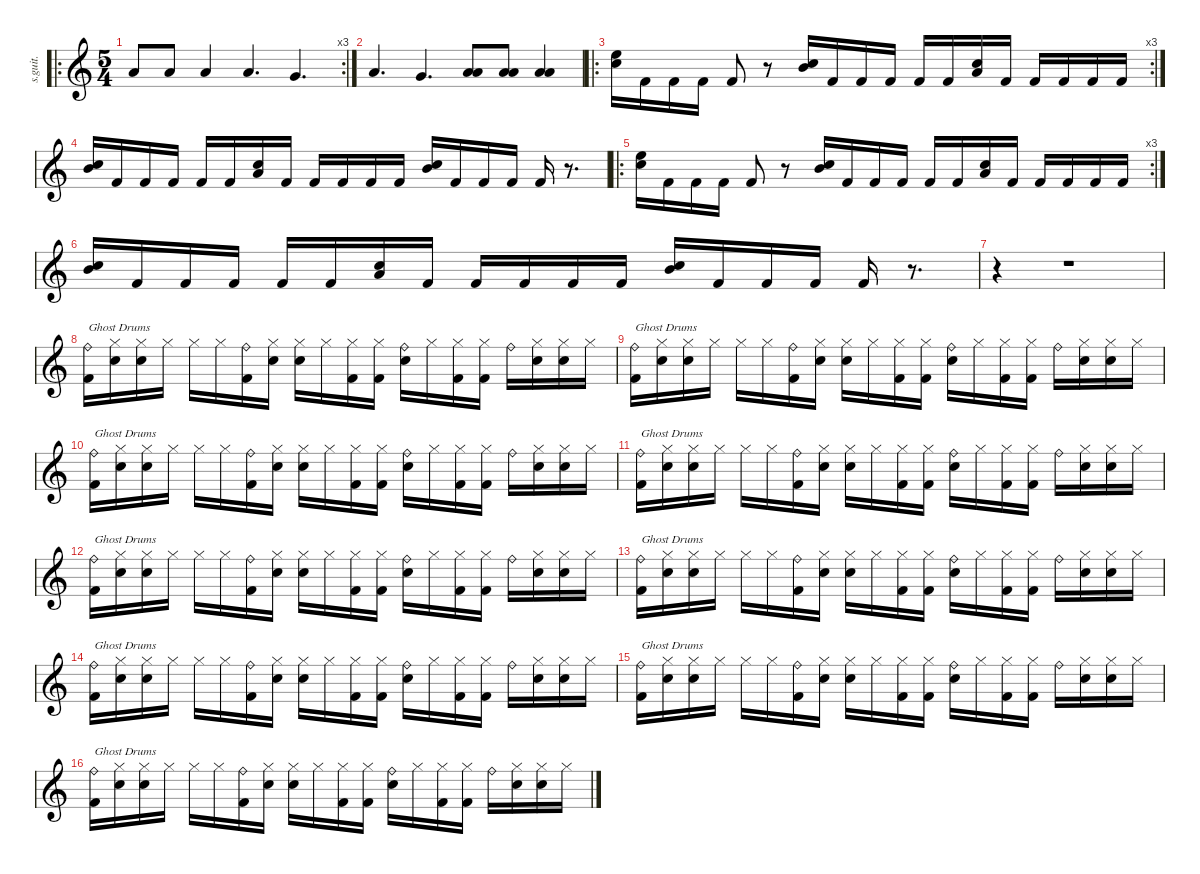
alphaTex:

\defaultSystemsLayout 4
\hideDynamics
\bracketExtendMode nobrackets
\track ("Pete Riley" "s.guit.") {instrument percussion}
\staff {score}
\articulation defaults
\ro
\rc 3
\ts (5 4)
\tempo (152 hide)
\clef g2
\ks c "Low Floor Tom (hit)".8{dy f} "Low Floor Tom (hit)".8 "Low Floor Tom (hit)".4 "Low Tom (hit)".4{d} "Very Low Tom (hit)".4{d}
|
"Low Tom (hit)".4{d} "Very Low Tom (hit)".4{d} ("Low Tom (hit)" "Low Floor Tom (hit)").8 ("Low Tom (hit)" "Low Floor Tom (hit)").8 ("Low Tom (hit)" "Low Floor Tom (hit)").4 |
\ro
\rc 3
("High Floor Tom (hit)" "Snare (hit) 2").16 "Kick (hit) 2".16 "Kick (hit) 2".16 "Kick (hit) 2".16 "Kick (hit) 2".8 r.8 ("Mid Tom (hit)" "Snare (hit) 2").16 "Kick (hit) 2".16 "Kick (hit) 2".16 "Kick (hit) 2".16 "Kick (hit) 2".16 "Kick (hit) 2".16 ("Low Tom (hit)" "Snare (hit) 2").16 "Kick (hit) 2".16 "Kick (hit) 2".16 "Kick (hit) 2".16 "Kick (hit) 2".16 "Kick (hit) 2".16 |
("Mid Tom (hit)" "Snare (hit) 2").16 "Kick (hit) 2".16 "Kick (hit) 2".16 "Kick (hit) 2".16 "Kick (hit) 2".16 "Kick (hit) 2".16 ("Low Tom (hit)" "Snare (hit) 2").16 "Kick (hit) 2".16 "Kick (hit) 2".16 "Kick (hit) 2".16 "Kick (hit) 2".16 "Kick (hit) 2".16 ("Mid Tom (hit)" "Snare (hit) 2").16 "Kick (hit) 2".16 "Kick (hit) 2".16 "Kick (hit) 2".16 "Kick (hit) 2".16 r.8{d} |
\ro
\rc 3
("High Floor Tom (hit)" "Snare (hit) 2").16 "Kick (hit) 2".16 "Kick (hit) 2".16 "Kick (hit) 2".16 "Kick (hit) 2".8 r.8 ("Mid Tom (hit)" "Snare (hit) 2").16 "Kick (hit) 2".16 "Kick (hit) 2".16 "Kick (hit) 2".16 "Kick (hit) 2".16 "Kick (hit) 2".16 ("Low Tom (hit)" "Snare (hit) 2").16 "Kick (hit) 2".16 "Kick (hit) 2".16 "Kick (hit) 2".16 "Kick (hit) 2".16 "Kick (hit) 2".16 |
("Mid Tom (hit)" "Snare (hit) 2").16 "Kick (hit) 2".16 "Kick (hit) 2".16 "Kick (hit) 2".16 "Kick (hit) 2".16 "Kick (hit) 2".16 ("Low Tom (hit)" "Snare (hit) 2").16 "Kick (hit) 2".16 "Kick (hit) 2".16 "Kick (hit) 2".16 "Kick (hit) 2".16 "Kick (hit) 2".16 ("Mid Tom (hit)" "Snare (hit) 2").16 "Kick (hit) 2".16 "Kick (hit) 2".16 "Kick (hit) 2".16 "Kick (hit) 2".16 r.8{d} |
r.4 r.1 |
("Ride (bell)" "Kick (hit) 2").16{txt "Ghost Drums" dy ff} ("Hi-Hat (closed)" "Snare (hit) 2").16{dy p} ("Hi-Hat (closed)" "Snare (hit) 2").16 "Hi-Hat (closed)".16 "Hi-Hat (closed)".16 "Hi-Hat (closed)".16 ("Ride (bell)" "Kick (hit) 2").16{dy fff} ("Hi-Hat (closed)" "Snare (hit) 2").16{dy p} ("Hi-Hat (closed)" "Snare (hit) 2").16 "Hi-Hat (closed)".16 ("Hi-Hat (closed)" "Kick (hit) 2").16 ("Hi-Hat (closed)" "Kick (hit) 2").16 ("Ride (bell)" "Snare (hit) 2").16{dy ff} "Hi-Hat (closed)".16{dy p} ("Hi-Hat (closed)" "Kick (hit) 2").16 ("Hi-Hat (closed)" "Kick (hit) 2").16 "Ride (bell)".16{dy f} ("Hi-Hat (closed)" "Snare (hit) 2").16{dy pp} ("Hi-Hat (closed)" "Snare (hit) 2").16 "Hi-Hat (closed)".16 |
("Ride (bell)" "Kick (hit) 2").16{txt "Ghost Drums" dy ff} ("Hi-Hat (closed)" "Snare (hit) 2").16{dy p} ("Hi-Hat (closed)" "Snare (hit) 2").16 "Hi-Hat (closed)".16 "Hi-Hat (closed)".16 "Hi-Hat (closed)".16 ("Ride (bell)" "Kick (hit) 2").16{dy fff} ("Hi-Hat (closed)" "Snare (hit) 2").16{dy p} ("Hi-Hat (closed)" "Snare (hit) 2").16 "Hi-Hat (closed)".16 ("Hi-Hat (closed)" "Kick (hit) 2").16 ("Hi-Hat (closed)" "Kick (hit) 2").16 ("Ride (bell)" "Snare (hit) 2").16{dy ff} "Hi-Hat (closed)".16{dy p} ("Hi-Hat (closed)" "Kick (hit) 2").16 ("Hi-Hat (closed)" "Kick (hit) 2").16 "Ride (bell)".16{dy fff} ("Hi-Hat (closed)" "Snare (hit) 2").16{dy pp} ("Hi-Hat (closed)" "Snare (hit) 2").16 "Hi-Hat (closed)".16 |
("Ride (bell)" "Kick (hit) 2").16{txt "Ghost Drums" dy ff} ("Hi-Hat (closed)" "Snare (hit) 2").16{dy p} ("Hi-Hat (closed)" "Snare (hit) 2").16 "Hi-Hat (closed)".16 "Hi-Hat (closed)".16 "Hi-Hat (closed)".16 ("Ride (bell)" "Kick (hit) 2").16{dy fff} ("Hi-Hat (closed)" "Snare (hit) 2").16{dy p} ("Hi-Hat (closed)" "Snare (hit) 2").16 "Hi-Hat (closed)".16 ("Hi-Hat (closed)" "Kick (hit) 2").16 ("Hi-Hat (closed)" "Kick (hit) 2").16 ("Ride (bell)" "Snare (hit) 2").16{dy ff} "Hi-Hat (closed)".16{dy p} ("Hi-Hat (closed)" "Kick (hit) 2").16 ("Hi-Hat (closed)" "Kick (hit) 2").16 "Ride (bell)".16{dy f} ("Hi-Hat (closed)" "Snare (hit) 2").16{dy pp} ("Hi-Hat (closed)" "Snare (hit) 2").16 "Hi-Hat (closed)".16 |
("Ride (bell)" "Kick (hit) 2").16{txt "Ghost Drums" dy ff} ("Hi-Hat (closed)" "Snare (hit) 2").16{dy p} ("Hi-Hat (closed)" "Snare (hit) 2").16 "Hi-Hat (closed)".16 "Hi-Hat (closed)".16 "Hi-Hat (closed)".16 ("Ride (bell)" "Kick (hit) 2").16{dy fff} ("Hi-Hat (closed)" "Snare (hit) 2").16{dy p} ("Hi-Hat (closed)" "Snare (hit) 2").16 "Hi-Hat (closed)".16 ("Hi-Hat (closed)" "Kick (hit) 2").16 ("Hi-Hat (closed)" "Kick (hit) 2").16 ("Ride (bell)" "Snare (hit) 2").16{dy ff} "Hi-Hat (closed)".16{dy p} ("Hi-Hat (closed)" "Kick (hit) 2").16 ("Hi-Hat (closed)" "Kick (hit) 2").16 "Ride (bell)".16{dy fff} ("Hi-Hat (closed)" "Snare (hit) 2").16{dy pp} ("Hi-Hat (closed)" "Snare (hit) 2").16 "Hi-Hat (closed)".16 |
("Ride (bell)" "Kick (hit) 2").16{txt "Ghost Drums" dy ff} ("Hi-Hat (closed)" "Snare (hit) 2").16{dy p} ("Hi-Hat (closed)" "Snare (hit) 2").16 "Hi-Hat (closed)".16 "Hi-Hat (closed)".16 "Hi-Hat (closed)".16 ("Ride (bell)" "Kick (hit) 2").16{dy fff} ("Hi-Hat (closed)" "Snare (hit) 2").16{dy p} ("Hi-Hat (closed)" "Snare (hit) 2").16 "Hi-Hat (closed)".16 ("Hi-Hat (closed)" "Kick (hit) 2").16 ("Hi-Hat (closed)" "Kick (hit) 2").16 ("Ride (bell)" "Snare (hit) 2").16{dy ff} "Hi-Hat (closed)".16{dy p} ("Hi-Hat (closed)" "Kick (hit) 2").16 ("Hi-Hat (closed)" "Kick (hit) 2").16 "Ride (bell)".16{dy f} ("Hi-Hat (closed)" "Snare (hit) 2").16{dy pp} ("Hi-Hat (closed)" "Snare (hit) 2").16 "Hi-Hat (closed)".16 |
("Ride (bell)" "Kick (hit) 2").16{txt "Ghost Drums" dy ff} ("Hi-Hat (closed)" "Snare (hit) 2").16{dy p} ("Hi-Hat (closed)" "Snare (hit) 2").16 "Hi-Hat (closed)".16 "Hi-Hat (closed)".16 "Hi-Hat (closed)".16 ("Ride (bell)" "Kick (hit) 2").16{dy fff} ("Hi-Hat (closed)" "Snare (hit) 2").16{dy p} ("Hi-Hat (closed)" "Snare (hit) 2").16 "Hi-Hat (closed)".16 ("Hi-Hat (closed)" "Kick (hit) 2").16 ("Hi-Hat (closed)" "Kick (hit) 2").16 ("Ride (bell)" "Snare (hit) 2").16{dy ff} "Hi-Hat (closed)".16{dy p} ("Hi-Hat (closed)" "Kick (hit) 2").16 ("Hi-Hat (closed)" "Kick (hit) 2").16 "Ride (bell)".16{dy fff} ("Hi-Hat (closed)" "Snare (hit) 2").16{dy pp} ("Hi-Hat (closed)" "Snare (hit) 2").16 "Hi-Hat (closed)".16 |
("Ride (bell)" "Kick (hit) 2").16{txt "Ghost Drums" dy ff} ("Hi-Hat (closed)" "Snare (hit) 2").16{dy p} ("Hi-Hat (closed)" "Snare (hit) 2").16 "Hi-Hat (closed)".16 "Hi-Hat (closed)".16 "Hi-Hat (closed)".16 ("Ride (bell)" "Kick (hit) 2").16{dy fff} ("Hi-Hat (closed)" "Snare (hit) 2").16{dy p} ("Hi-Hat (closed)" "Snare (hit) 2").16 "Hi-Hat (closed)".16 ("Hi-Hat (closed)" "Kick (hit) 2").16 ("Hi-Hat (closed)" "Kick (hit) 2").16 ("Ride (bell)" "Snare (hit) 2").16{dy ff} "Hi-Hat (closed)".16{dy p} ("Hi-Hat (closed)" "Kick (hit) 2").16 ("Hi-Hat (closed)" "Kick (hit) 2").16 "Ride (bell)".16{dy f} ("Hi-Hat (closed)" "Snare (hit) 2").16{dy pp} ("Hi-Hat (closed)" "Snare (hit) 2").16 "Hi-Hat (closed)".16 |
("Ride (bell)" "Kick (hit) 2").16{txt "Ghost Drums" dy ff} ("Hi-Hat (closed)" "Snare (hit) 2").16{dy p} ("Hi-Hat (closed)" "Snare (hit) 2").16 "Hi-Hat (closed)".16 "Hi-Hat (closed)".16 "Hi-Hat (closed)".16 ("Ride (bell)" "Kick (hit) 2").16{dy fff} ("Hi-Hat (closed)" "Snare (hit) 2").16{dy p} ("Hi-Hat (closed)" "Snare (hit) 2").16 "Hi-Hat (closed)".16 ("Hi-Hat (closed)" "Kick (hit) 2").16 ("Hi-Hat (closed)" "Kick (hit) 2").16 ("Ride (bell)" "Snare (hit) 2").16{dy ff} "Hi-Hat (closed)".16{dy p} ("Hi-Hat (closed)" "Kick (hit) 2").16 ("Hi-Hat (closed)" "Kick (hit) 2").16 "Ride (bell)".16{dy fff} ("Hi-Hat (closed)" "Snare (hit) 2").16{dy pp} ("Hi-Hat (closed)" "Snare (hit) 2").16 "Hi-Hat (closed)".16 |
("Ride (bell)" "Kick (hit) 2").16{txt "Ghost Drums" dy ff} ("Hi-Hat (closed)" "Snare (hit) 2").16{dy p} ("Hi-Hat (closed)" "Snare (hit) 2").16 "Hi-Hat (closed)".16 "Hi-Hat (closed)".16 "Hi-Hat (closed)".16 ("Ride (bell)" "Kick (hit) 2").16{dy fff} ("Hi-Hat (closed)" "Snare (hit) 2").16{dy p} ("Hi-Hat (closed)" "Snare (hit) 2").16 "Hi-Hat (closed)".16 ("Hi-Hat (closed)" "Kick (hit) 2").16 ("Hi-Hat (closed)" "Kick (hit) 2").16 ("Ride (bell)" "Snare (hit) 2").16{dy ff} "Hi-Hat (closed)".16{dy p} ("Hi-Hat (closed)" "Kick (hit) 2").16 ("Hi-Hat (closed)" "Kick (hit) 2").16 "Ride (bell)".16{dy f} ("Hi-Hat (closed)" "Snare (hit) 2").16{dy pp} ("Hi-Hat (closed)" "Snare (hit) 2").16 "Hi-Hat (closed)".16
